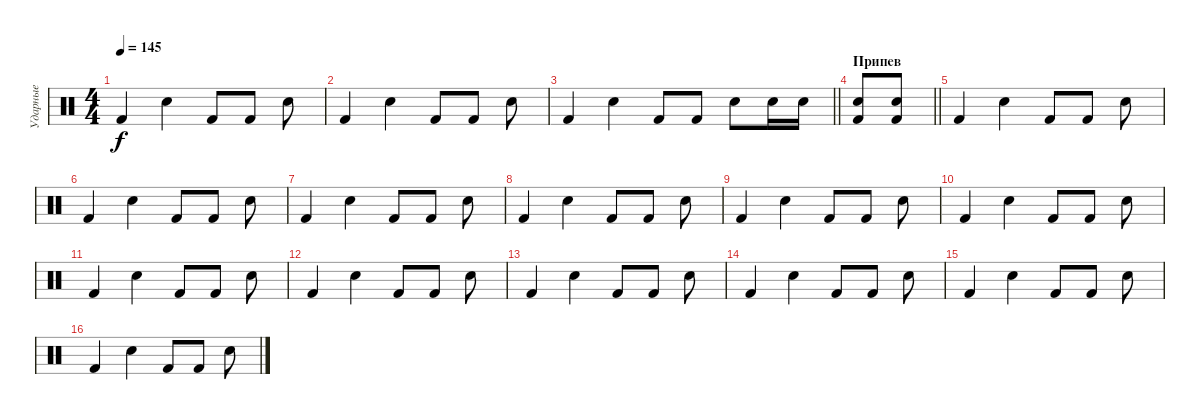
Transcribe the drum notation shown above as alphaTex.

\track ("Ударные" "Ударные") {instrument percussion}
\staff {score}
\articulation defaults
\ts (4 4)
\tempo 145
\clef neutral
\ks c "Kick (hit) 2".4{dy f} "Snare (hit) 2".4 "Kick (hit) 2".8 "Kick (hit) 2".8 "Snare (hit) 2".8
|
"Kick (hit) 2".4 "Snare (hit) 2".4 "Kick (hit) 2".8 "Kick (hit) 2".8 "Snare (hit) 2".8 |
\barLineRight lightlight "Kick (hit) 2".4 "Snare (hit) 2".4 "Kick (hit) 2".8 "Kick (hit) 2".8 "Snare (hit) 2".8 "Snare (hit) 2".16 "Snare (hit) 2".16
|
\section ("" "Припев")
\barLineRight lightlight
("Kick (hit) 2" "Snare (hit) 2").8 ("Kick (hit) 2" "Snare (hit) 2").8 |
"Kick (hit) 2".4 "Snare (hit) 2".4 "Kick (hit) 2".8 "Kick (hit) 2".8 "Snare (hit) 2".8 |
"Kick (hit) 2".4 "Snare (hit) 2".4 "Kick (hit) 2".8 "Kick (hit) 2".8 "Snare (hit) 2".8 |
"Kick (hit) 2".4 "Snare (hit) 2".4 "Kick (hit) 2".8 "Kick (hit) 2".8 "Snare (hit) 2".8 |
"Kick (hit) 2".4 "Snare (hit) 2".4 "Kick (hit) 2".8 "Kick (hit) 2".8 "Snare (hit) 2".8 |
"Kick (hit) 2".4 "Snare (hit) 2".4 "Kick (hit) 2".8 "Kick (hit) 2".8 "Snare (hit) 2".8 |
"Kick (hit) 2".4 "Snare (hit) 2".4 "Kick (hit) 2".8 "Kick (hit) 2".8 "Snare (hit) 2".8 |
"Kick (hit) 2".4 "Snare (hit) 2".4 "Kick (hit) 2".8 "Kick (hit) 2".8 "Snare (hit) 2".8 |
"Kick (hit) 2".4 "Snare (hit) 2".4 "Kick (hit) 2".8 "Kick (hit) 2".8 "Snare (hit) 2".8 |
"Kick (hit) 2".4 "Snare (hit) 2".4 "Kick (hit) 2".8 "Kick (hit) 2".8 "Snare (hit) 2".8 |
"Kick (hit) 2".4 "Snare (hit) 2".4 "Kick (hit) 2".8 "Kick (hit) 2".8 "Snare (hit) 2".8 |
"Kick (hit) 2".4 "Snare (hit) 2".4 "Kick (hit) 2".8 "Kick (hit) 2".8 "Snare (hit) 2".8 |
"Kick (hit) 2".4 "Snare (hit) 2".4 "Kick (hit) 2".8 "Kick (hit) 2".8 "Snare (hit) 2".8
